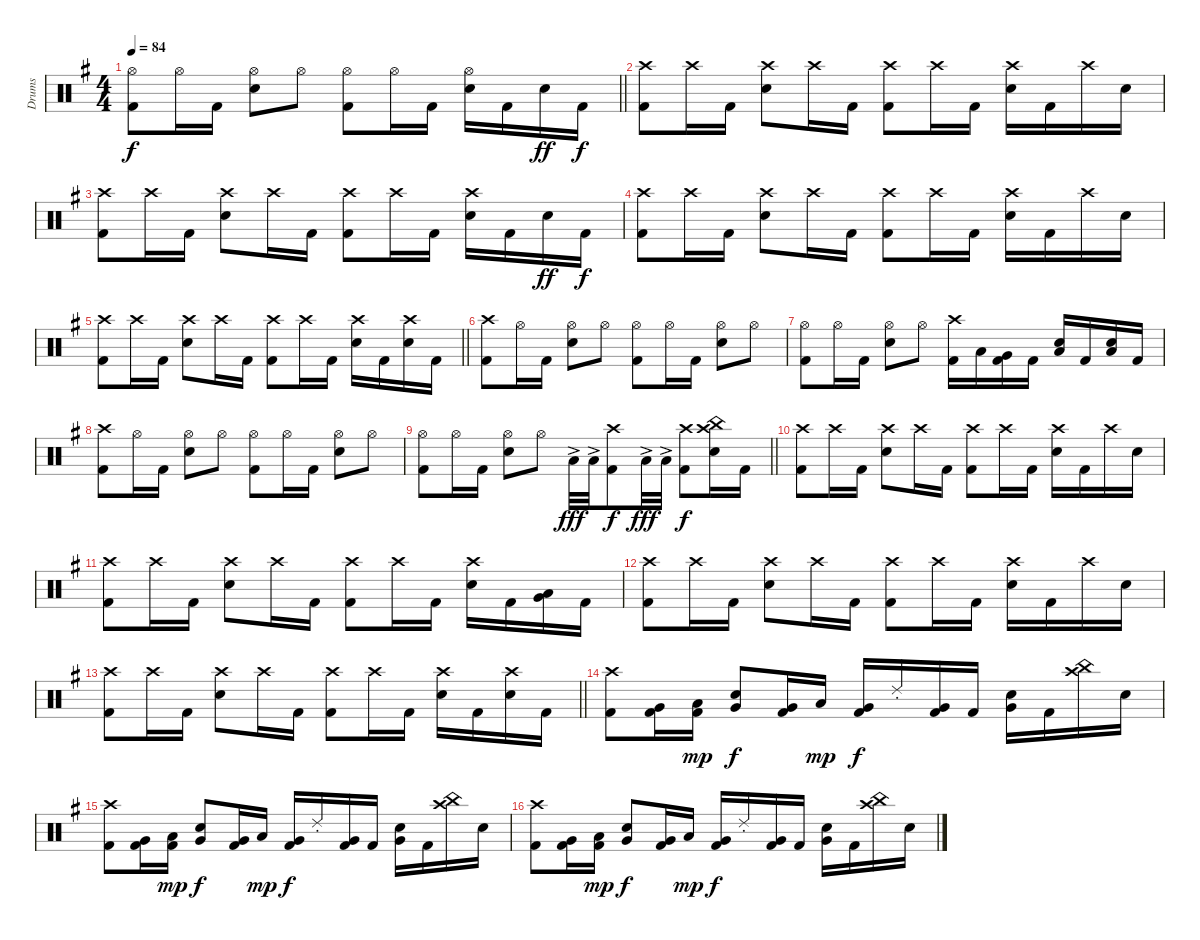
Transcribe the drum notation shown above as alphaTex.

\track ("Drums" "Drums") {instrument percussion}
\staff {score}
\articulation defaults
\ts (4 4)
\tempo 84
\clef neutral
\barLineRight lightlight
\ks eminor
("Hi-Hat (open)" "Kick (hit) 2").8{dy f} "Hi-Hat (open)".16 "Kick (hit) 2".16 ("Hi-Hat (open)" "Snare (hit) 2").8 "Hi-Hat (open)".8 ("Hi-Hat (open)" "Kick (hit) 2").8 "Hi-Hat (open)".16 "Kick (hit) 2".16 ("Hi-Hat (open)" "Snare (hit) 2").16 "Kick (hit) 2".16 "Snare (hit) 2".16{dy ff} "Kick (hit) 2".16{dy f} |
("Crash high (hit)" "Kick (hit) 2").8 "Crash high (hit)".16 "Kick (hit) 2".16 ("Crash high (hit)" "Snare (hit) 2").8 "Crash high (hit)".16 "Kick (hit) 2".16 ("Crash high (hit)" "Kick (hit) 2").8 "Crash high (hit)".16 "Kick (hit) 2".16 ("Crash high (hit)" "Snare (hit) 2").16 "Kick (hit) 2".16 "Crash high (hit)".16 "Snare (hit) 2".16 |
("Crash high (hit)" "Kick (hit) 2").8 "Crash high (hit)".16 "Kick (hit) 2".16 ("Crash high (hit)" "Snare (hit) 2").8 "Crash high (hit)".16 "Kick (hit) 2".16 ("Crash high (hit)" "Kick (hit) 2").8 "Crash high (hit)".16 "Kick (hit) 2".16 ("Crash high (hit)" "Snare (hit) 2").16 "Kick (hit) 2".16 "Snare (hit) 2".16{dy ff} "Kick (hit) 2".16{dy f} |
("Crash high (hit)" "Kick (hit) 2").8 "Crash high (hit)".16 "Kick (hit) 2".16 ("Crash high (hit)" "Snare (hit) 2").8 "Crash high (hit)".16 "Kick (hit) 2".16 ("Crash high (hit)" "Kick (hit) 2").8 "Crash high (hit)".16 "Kick (hit) 2".16 ("Crash high (hit)" "Snare (hit) 2").16 "Kick (hit) 2".16 "Crash high (hit)".16 "Snare (hit) 2".16 |
\barLineRight lightlight
("Crash high (hit)" "Kick (hit) 2").8 "Crash high (hit)".16 "Kick (hit) 2".16 ("Crash high (hit)" "Snare (hit) 2").8 "Crash high (hit)".16 "Kick (hit) 2".16 ("Crash high (hit)" "Kick (hit) 2").8 "Crash high (hit)".16 "Kick (hit) 2".16 ("Crash high (hit)" "Snare (hit) 2").16 "Kick (hit) 2".16 ("Crash high (hit)" "Snare (hit) 2").16 "Kick (hit) 2".16 |
("Crash high (hit)" "Kick (hit) 2").8 "Hi-Hat (open)".16 "Kick (hit) 2".16 ("Hi-Hat (open)" "Snare (hit) 2").8 "Hi-Hat (open)".8 ("Hi-Hat (open)" "Kick (hit) 2").8 "Hi-Hat (open)".16 "Kick (hit) 2".16 ("Hi-Hat (open)" "Snare (hit) 2").8 "Hi-Hat (open)".8 |
("Hi-Hat (open)" "Kick (hit) 2").8 "Hi-Hat (open)".16 "Kick (hit) 2".16 ("Hi-Hat (open)" "Snare (hit) 2").8 "Hi-Hat (open)".8 ("Crash high (hit)" "Kick (hit) 2").16 "Low Tom (hit)".16 ("Very Low Tom (hit)" "Kick (hit) 2").16 "Kick (hit) 2".16 ("Snare (hit) 2" "Low Tom (hit)").16 "Kick (hit) 2".16 ("Snare (hit) 2" "Low Tom (hit)").16 "Kick (hit) 2".16 |
("Crash high (hit)" "Kick (hit) 2").8 "Hi-Hat (open)".16 "Kick (hit) 2".16 ("Hi-Hat (open)" "Snare (hit) 2").8 "Hi-Hat (open)".8 ("Hi-Hat (open)" "Kick (hit) 2").8 "Hi-Hat (open)".16 "Kick (hit) 2".16 ("Hi-Hat (open)" "Snare (hit) 2").8 "Hi-Hat (open)".8 |
\barLineRight lightlight
("Hi-Hat (open)" "Kick (hit) 2").8 "Hi-Hat (open)".16 "Kick (hit) 2".16 ("Hi-Hat (open)" "Snare (hit) 2").8 "Hi-Hat (open)".8 "Low Tom (hit)"{ac}.32{dy fff} "Low Tom (hit)"{ac}.32 ("Crash high (hit)" "Kick (hit) 2").8{dy f} "Low Tom (hit)"{ac}.32{dy fff} "Low Tom (hit)"{ac}.32 ("Crash high (hit)" "Kick (hit) 2").8{dy f} ("China (hit)" "Crash high (hit)" "Snare (hit) 2").16 "Kick (hit) 2".16 |
("Crash high (hit)" "Kick (hit) 2").8 "Crash high (hit)".16 "Kick (hit) 2".16 ("Crash high (hit)" "Snare (hit) 2").8 "Crash high (hit)".16 "Kick (hit) 2".16 ("Crash high (hit)" "Kick (hit) 2").8 "Crash high (hit)".16 "Kick (hit) 2".16 ("Crash high (hit)" "Snare (hit) 2").16 "Kick (hit) 2".16 "Crash high (hit)".16 "Snare (hit) 2".16 |
("Crash high (hit)" "Kick (hit) 2").8 "Crash high (hit)".16 "Kick (hit) 2".16 ("Crash high (hit)" "Snare (hit) 2").8 "Crash high (hit)".16 "Kick (hit) 2".16 ("Crash high (hit)" "Kick (hit) 2").8 "Crash high (hit)".16 "Kick (hit) 2".16 ("Crash high (hit)" "Snare (hit) 2").16 "Kick (hit) 2".16 ("Low Tom (hit)" "Very Low Tom (hit)").16 "Kick (hit) 2".16 |
("Crash high (hit)" "Kick (hit) 2").8 "Crash high (hit)".16 "Kick (hit) 2".16 ("Crash high (hit)" "Snare (hit) 2").8 "Crash high (hit)".16 "Kick (hit) 2".16 ("Crash high (hit)" "Kick (hit) 2").8 "Crash high (hit)".16 "Kick (hit) 2".16 ("Crash high (hit)" "Snare (hit) 2").16 "Kick (hit) 2".16 "Crash high (hit)".16 "Snare (hit) 2".16 |
\barLineRight lightlight
("Crash high (hit)" "Kick (hit) 2").8 "Crash high (hit)".16 "Kick (hit) 2".16 ("Crash high (hit)" "Snare (hit) 2").8 "Crash high (hit)".16 "Kick (hit) 2".16 ("Crash high (hit)" "Kick (hit) 2").8 "Crash high (hit)".16 "Kick (hit) 2".16 ("Crash high (hit)" "Snare (hit) 2").16 "Kick (hit) 2".16 ("Crash high (hit)" "Snare (hit) 2").16 "Kick (hit) 2".16 |
("Crash high (hit)" "Kick (hit) 2").8 ("Very Low Tom (hit)" "Kick (hit) 2").16 ("Low Tom (hit)" "Kick (hit) 2").16{dy mp} ("Snare (hit) 2" "Very Low Tom (hit)").8{dy f} ("Very Low Tom (hit)" "Kick (hit) 2").16 "Low Tom (hit)".16{dy mp} ("Very Low Tom (hit)" "Kick (hit) 2").16{dy f} "Ride (choke) 2".16 ("Very Low Tom (hit)" "Kick (hit) 2").16 "Kick (hit) 2".16 ("Snare (hit) 2" "Very Low Tom (hit)").16 "Kick (hit) 2".16 ("China (hit)" "Crash high (hit)").16 "Snare (hit) 2".16 |
("Crash high (hit)" "Kick (hit) 2").8 ("Very Low Tom (hit)" "Kick (hit) 2").16 ("Low Tom (hit)" "Kick (hit) 2").16{dy mp} ("Snare (hit) 2" "Very Low Tom (hit)").8{dy f} ("Very Low Tom (hit)" "Kick (hit) 2").16 "Low Tom (hit)".16{dy mp} ("Very Low Tom (hit)" "Kick (hit) 2").16{dy f} "Ride (choke) 2".16 ("Very Low Tom (hit)" "Kick (hit) 2").16 "Kick (hit) 2".16 ("Snare (hit) 2" "Very Low Tom (hit)").16 "Kick (hit) 2".16 ("China (hit)" "Crash high (hit)").16 "Snare (hit) 2".16 |
("Crash high (hit)" "Kick (hit) 2").8 ("Very Low Tom (hit)" "Kick (hit) 2").16 ("Low Tom (hit)" "Kick (hit) 2").16{dy mp} ("Snare (hit) 2" "Very Low Tom (hit)").8{dy f} ("Very Low Tom (hit)" "Kick (hit) 2").16 "Low Tom (hit)".16{dy mp} ("Very Low Tom (hit)" "Kick (hit) 2").16{dy f} "Ride (choke) 2".16 ("Very Low Tom (hit)" "Kick (hit) 2").16 "Kick (hit) 2".16 ("Snare (hit) 2" "Very Low Tom (hit)").16 "Kick (hit) 2".16 ("China (hit)" "Crash high (hit)").16 "Snare (hit) 2".16
